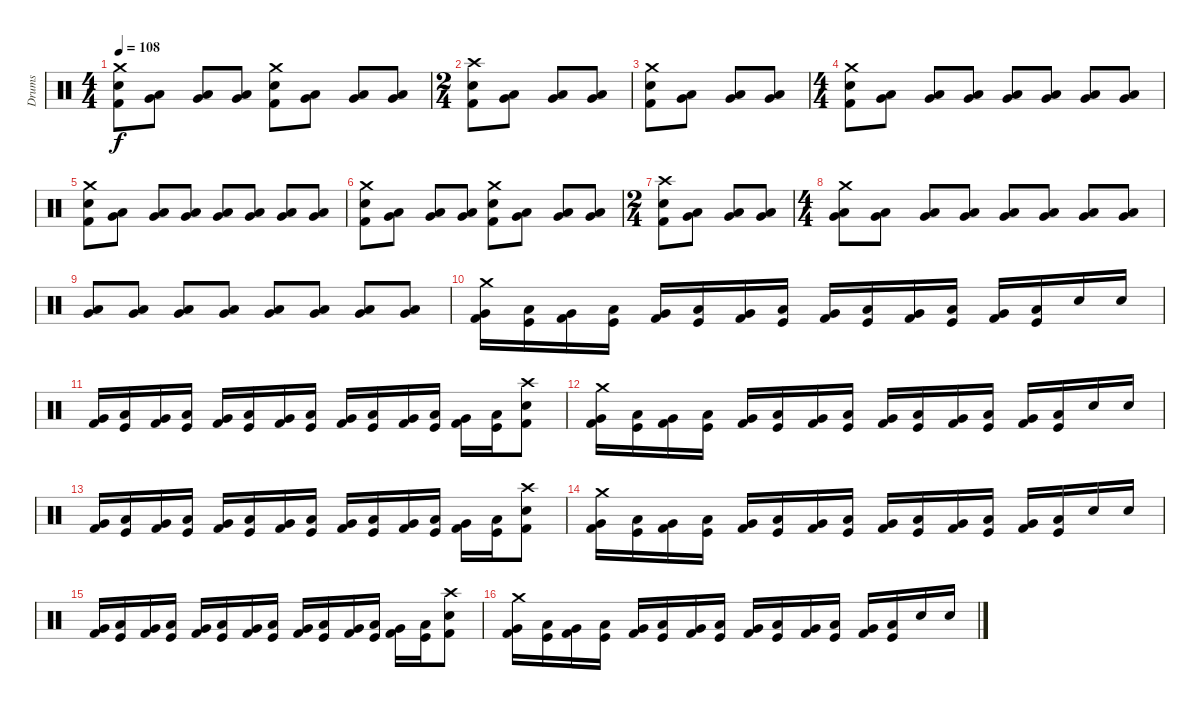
\track ("Drums" "Drums") {instrument percussion}
\staff {score}
\articulation defaults
\ts (4 4)
\tempo 108
\clef neutral
\ks c
("Crash medium (hit)" "Snare (hit) 2" "Kick (hit) 2").8{dy f} ("Low Floor Tom (hit)" "Very Low Tom (hit)").8 ("Low Floor Tom (hit)" "Very Low Tom (hit)").8 ("Low Floor Tom (hit)" "Very Low Tom (hit)").8 ("Crash medium (hit)" "Snare (hit) 2" "Kick (hit) 2").8 ("Low Floor Tom (hit)" "Very Low Tom (hit)").8 ("Low Floor Tom (hit)" "Very Low Tom (hit)").8 ("Low Floor Tom (hit)" "Very Low Tom (hit)").8 |
\ts (2 4)
("Crash high (hit)" "Snare (hit) 2" "Kick (hit) 2").8 ("Very Low Tom (hit)" "Low Floor Tom (hit)").8 ("Very Low Tom (hit)" "Low Floor Tom (hit)").8 ("Very Low Tom (hit)" "Low Floor Tom (hit)").8 |
("Crash medium (hit)" "Snare (hit) 2" "Kick (hit) 2").8 ("Low Floor Tom (hit)" "Very Low Tom (hit)").8 ("Low Floor Tom (hit)" "Very Low Tom (hit)").8 ("Low Floor Tom (hit)" "Very Low Tom (hit)").8 |
\ts (4 4)
("Crash medium (hit)" "Snare (hit) 2" "Kick (hit) 2").8 ("Low Floor Tom (hit)" "Very Low Tom (hit)").8 ("Low Floor Tom (hit)" "Very Low Tom (hit)").8 ("Low Floor Tom (hit)" "Very Low Tom (hit)").8 ("Low Floor Tom (hit)" "Very Low Tom (hit)").8 ("Low Floor Tom (hit)" "Very Low Tom (hit)").8 ("Low Floor Tom (hit)" "Very Low Tom (hit)").8 ("Low Floor Tom (hit)" "Very Low Tom (hit)").8 |
("Crash medium (hit)" "Snare (hit) 2" "Kick (hit) 2").8 ("Low Floor Tom (hit)" "Very Low Tom (hit)").8 ("Low Floor Tom (hit)" "Very Low Tom (hit)").8 ("Low Floor Tom (hit)" "Very Low Tom (hit)").8 ("Low Floor Tom (hit)" "Very Low Tom (hit)").8 ("Low Floor Tom (hit)" "Very Low Tom (hit)").8 ("Low Floor Tom (hit)" "Very Low Tom (hit)").8 ("Low Floor Tom (hit)" "Very Low Tom (hit)").8 |
("Crash medium (hit)" "Snare (hit) 2" "Kick (hit) 2").8 ("Low Floor Tom (hit)" "Very Low Tom (hit)").8 ("Low Floor Tom (hit)" "Very Low Tom (hit)").8 ("Low Floor Tom (hit)" "Very Low Tom (hit)").8 ("Crash medium (hit)" "Snare (hit) 2" "Kick (hit) 2").8 ("Low Floor Tom (hit)" "Very Low Tom (hit)").8 ("Low Floor Tom (hit)" "Very Low Tom (hit)").8 ("Low Floor Tom (hit)" "Very Low Tom (hit)").8 |
\ts (2 4)
("Crash high (hit)" "Snare (hit) 2" "Kick (hit) 2").8 ("Very Low Tom (hit)" "Low Floor Tom (hit)").8 ("Very Low Tom (hit)" "Low Floor Tom (hit)").8 ("Very Low Tom (hit)" "Low Floor Tom (hit)").8 |
\ts (4 4)
("Crash medium (hit)" "Very Low Tom (hit)" "Low Floor Tom (hit)").8 ("Very Low Tom (hit)" "Low Floor Tom (hit)").8 ("Very Low Tom (hit)" "Low Floor Tom (hit)").8 ("Very Low Tom (hit)" "Low Floor Tom (hit)").8 ("Very Low Tom (hit)" "Low Floor Tom (hit)").8 ("Very Low Tom (hit)" "Low Floor Tom (hit)").8 ("Very Low Tom (hit)" "Low Floor Tom (hit)").8 ("Very Low Tom (hit)" "Low Floor Tom (hit)").8 |
("Very Low Tom (hit)" "Low Floor Tom (hit)").8 ("Very Low Tom (hit)" "Low Floor Tom (hit)").8 ("Very Low Tom (hit)" "Low Floor Tom (hit)").8 ("Very Low Tom (hit)" "Low Floor Tom (hit)").8 ("Very Low Tom (hit)" "Low Floor Tom (hit)").8 ("Very Low Tom (hit)" "Low Floor Tom (hit)").8 ("Very Low Tom (hit)" "Low Floor Tom (hit)").8 ("Very Low Tom (hit)" "Low Floor Tom (hit)").8 |
("Crash medium (hit)" "Very Low Tom (hit)" "Kick (hit) 2").16 ("Low Floor Tom (hit)" "Kick (hit)").16 ("Very Low Tom (hit)" "Kick (hit) 2").16 ("Low Floor Tom (hit)" "Kick (hit)").16 ("Very Low Tom (hit)" "Kick (hit) 2").16 ("Low Floor Tom (hit)" "Kick (hit)").16 ("Very Low Tom (hit)" "Kick (hit) 2").16 ("Low Floor Tom (hit)" "Kick (hit)").16 ("Very Low Tom (hit)" "Kick (hit) 2").16 ("Low Floor Tom (hit)" "Kick (hit)").16 ("Very Low Tom (hit)" "Kick (hit) 2").16 ("Low Floor Tom (hit)" "Kick (hit)").16 ("Very Low Tom (hit)" "Kick (hit) 2").16 ("Low Floor Tom (hit)" "Kick (hit)").16 "Snare (hit) 2".16 "Snare (hit) 2".16 |
("Very Low Tom (hit)" "Kick (hit) 2").16 ("Low Floor Tom (hit)" "Kick (hit)").16 ("Very Low Tom (hit)" "Kick (hit) 2").16 ("Low Floor Tom (hit)" "Kick (hit)").16 ("Very Low Tom (hit)" "Kick (hit) 2").16 ("Low Floor Tom (hit)" "Kick (hit)").16 ("Very Low Tom (hit)" "Kick (hit) 2").16 ("Low Floor Tom (hit)" "Kick (hit)").16 ("Very Low Tom (hit)" "Kick (hit) 2").16 ("Low Floor Tom (hit)" "Kick (hit)").16 ("Very Low Tom (hit)" "Kick (hit) 2").16 ("Low Floor Tom (hit)" "Kick (hit)").16 ("Very Low Tom (hit)" "Kick (hit) 2").16 ("Low Floor Tom (hit)" "Kick (hit)").16 ("Crash high (hit)" "Snare (hit) 2" "Kick (hit) 2").8 |
("Crash medium (hit)" "Very Low Tom (hit)" "Kick (hit) 2").16 ("Low Floor Tom (hit)" "Kick (hit)").16 ("Very Low Tom (hit)" "Kick (hit) 2").16 ("Low Floor Tom (hit)" "Kick (hit)").16 ("Very Low Tom (hit)" "Kick (hit) 2").16 ("Low Floor Tom (hit)" "Kick (hit)").16 ("Very Low Tom (hit)" "Kick (hit) 2").16 ("Low Floor Tom (hit)" "Kick (hit)").16 ("Very Low Tom (hit)" "Kick (hit) 2").16 ("Low Floor Tom (hit)" "Kick (hit)").16 ("Very Low Tom (hit)" "Kick (hit) 2").16 ("Low Floor Tom (hit)" "Kick (hit)").16 ("Very Low Tom (hit)" "Kick (hit) 2").16 ("Low Floor Tom (hit)" "Kick (hit)").16 "Snare (hit) 2".16 "Snare (hit) 2".16 |
("Very Low Tom (hit)" "Kick (hit) 2").16 ("Low Floor Tom (hit)" "Kick (hit)").16 ("Very Low Tom (hit)" "Kick (hit) 2").16 ("Low Floor Tom (hit)" "Kick (hit)").16 ("Very Low Tom (hit)" "Kick (hit) 2").16 ("Low Floor Tom (hit)" "Kick (hit)").16 ("Very Low Tom (hit)" "Kick (hit) 2").16 ("Low Floor Tom (hit)" "Kick (hit)").16 ("Very Low Tom (hit)" "Kick (hit) 2").16 ("Low Floor Tom (hit)" "Kick (hit)").16 ("Very Low Tom (hit)" "Kick (hit) 2").16 ("Low Floor Tom (hit)" "Kick (hit)").16 ("Very Low Tom (hit)" "Kick (hit) 2").16 ("Low Floor Tom (hit)" "Kick (hit)").16 ("Crash high (hit)" "Snare (hit) 2" "Kick (hit) 2").8 |
("Crash medium (hit)" "Very Low Tom (hit)" "Kick (hit) 2").16 ("Low Floor Tom (hit)" "Kick (hit)").16 ("Very Low Tom (hit)" "Kick (hit) 2").16 ("Low Floor Tom (hit)" "Kick (hit)").16 ("Very Low Tom (hit)" "Kick (hit) 2").16 ("Low Floor Tom (hit)" "Kick (hit)").16 ("Very Low Tom (hit)" "Kick (hit) 2").16 ("Low Floor Tom (hit)" "Kick (hit)").16 ("Very Low Tom (hit)" "Kick (hit) 2").16 ("Low Floor Tom (hit)" "Kick (hit)").16 ("Very Low Tom (hit)" "Kick (hit) 2").16 ("Low Floor Tom (hit)" "Kick (hit)").16 ("Very Low Tom (hit)" "Kick (hit) 2").16 ("Low Floor Tom (hit)" "Kick (hit)").16 "Snare (hit) 2".16 "Snare (hit) 2".16 |
("Very Low Tom (hit)" "Kick (hit) 2").16 ("Low Floor Tom (hit)" "Kick (hit)").16 ("Very Low Tom (hit)" "Kick (hit) 2").16 ("Low Floor Tom (hit)" "Kick (hit)").16 ("Very Low Tom (hit)" "Kick (hit) 2").16 ("Low Floor Tom (hit)" "Kick (hit)").16 ("Very Low Tom (hit)" "Kick (hit) 2").16 ("Low Floor Tom (hit)" "Kick (hit)").16 ("Very Low Tom (hit)" "Kick (hit) 2").16 ("Low Floor Tom (hit)" "Kick (hit)").16 ("Very Low Tom (hit)" "Kick (hit) 2").16 ("Low Floor Tom (hit)" "Kick (hit)").16 ("Very Low Tom (hit)" "Kick (hit) 2").16 ("Low Floor Tom (hit)" "Kick (hit)").16 ("Crash high (hit)" "Snare (hit) 2" "Kick (hit) 2").8 |
("Crash medium (hit)" "Very Low Tom (hit)" "Kick (hit) 2").16 ("Low Floor Tom (hit)" "Kick (hit)").16 ("Very Low Tom (hit)" "Kick (hit) 2").16 ("Low Floor Tom (hit)" "Kick (hit)").16 ("Very Low Tom (hit)" "Kick (hit) 2").16 ("Low Floor Tom (hit)" "Kick (hit)").16 ("Very Low Tom (hit)" "Kick (hit) 2").16 ("Low Floor Tom (hit)" "Kick (hit)").16 ("Very Low Tom (hit)" "Kick (hit) 2").16 ("Low Floor Tom (hit)" "Kick (hit)").16 ("Very Low Tom (hit)" "Kick (hit) 2").16 ("Low Floor Tom (hit)" "Kick (hit)").16 ("Very Low Tom (hit)" "Kick (hit) 2").16 ("Low Floor Tom (hit)" "Kick (hit)").16 "Snare (hit) 2".16 "Snare (hit) 2".16
